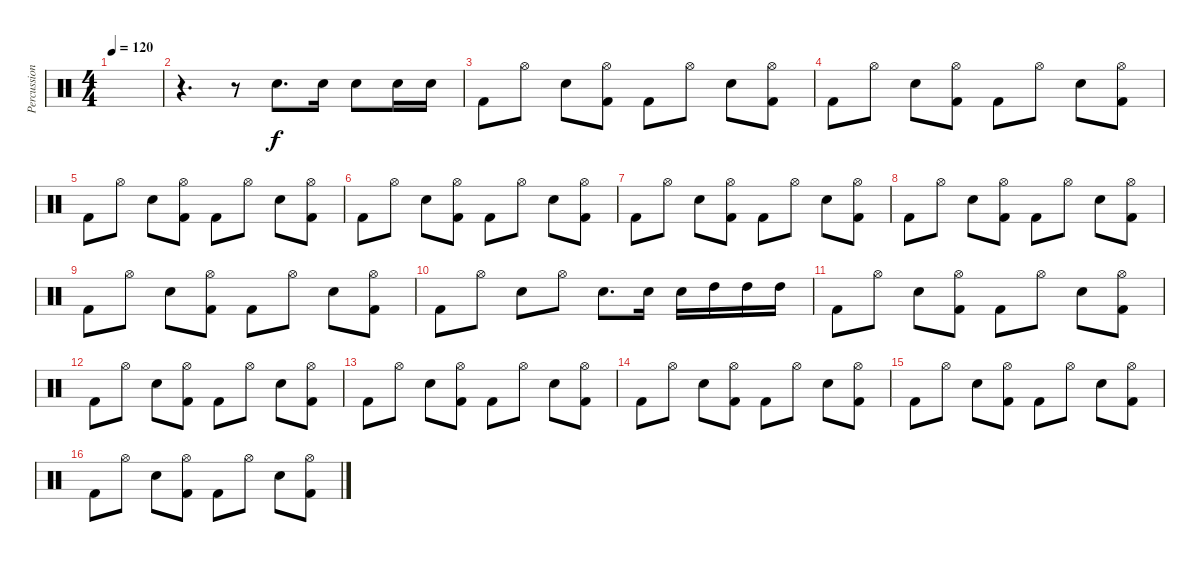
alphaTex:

\track ("Percussions" "Percussion") {instrument percussion}
\staff {score}
\articulation defaults
\ts (4 4)
\tempo 120
\clef neutral
\ks c
|
r.4{d} r.8 "Electric Snare (hit)".8{d} "Electric Snare (hit)".16 "Electric Snare (hit)".8 "Electric Snare (hit)".16 "Electric Snare (hit)".16 |
"Kick (hit) 2".8 "Hi-Hat (open)".8 "Electric Snare (hit)".8 ("Kick (hit) 2" "Hi-Hat (open)").8 "Kick (hit) 2".8 "Hi-Hat (open)".8 "Electric Snare (hit)".8 ("Hi-Hat (open)" "Kick (hit) 2").8 |
"Kick (hit) 2".8 "Hi-Hat (open)".8 "Electric Snare (hit)".8 ("Kick (hit) 2" "Hi-Hat (open)").8 "Kick (hit) 2".8 "Hi-Hat (open)".8 "Electric Snare (hit)".8 ("Hi-Hat (open)" "Kick (hit) 2").8 |
"Kick (hit) 2".8 "Hi-Hat (open)".8 "Electric Snare (hit)".8 ("Kick (hit) 2" "Hi-Hat (open)").8 "Kick (hit) 2".8 "Hi-Hat (open)".8 "Electric Snare (hit)".8 ("Hi-Hat (open)" "Kick (hit) 2").8 |
"Kick (hit) 2".8 "Hi-Hat (open)".8 "Electric Snare (hit)".8 ("Kick (hit) 2" "Hi-Hat (open)").8 "Kick (hit) 2".8 "Hi-Hat (open)".8 "Electric Snare (hit)".8 ("Hi-Hat (open)" "Kick (hit) 2").8 |
"Kick (hit) 2".8 "Hi-Hat (open)".8 "Electric Snare (hit)".8 ("Kick (hit) 2" "Hi-Hat (open)").8 "Kick (hit) 2".8 "Hi-Hat (open)".8 "Electric Snare (hit)".8 ("Hi-Hat (open)" "Kick (hit) 2").8 |
"Kick (hit) 2".8 "Hi-Hat (open)".8 "Electric Snare (hit)".8 ("Kick (hit) 2" "Hi-Hat (open)").8 "Kick (hit) 2".8 "Hi-Hat (open)".8 "Electric Snare (hit)".8 ("Hi-Hat (open)" "Kick (hit) 2").8 |
"Kick (hit) 2".8 "Hi-Hat (open)".8 "Electric Snare (hit)".8 ("Kick (hit) 2" "Hi-Hat (open)").8 "Kick (hit) 2".8 "Hi-Hat (open)".8 "Electric Snare (hit)".8 ("Hi-Hat (open)" "Kick (hit) 2").8 |
"Kick (hit) 2".8 "Hi-Hat (open)".8 "Electric Snare (hit)".8 "Hi-Hat (open)".8 "Electric Snare (hit)".8{d} "Electric Snare (hit)".16 "Electric Snare (hit)".16 "High Tom (hit)".16 "High Tom (hit)".16 "High Tom (hit)".16 |
"Kick (hit) 2".8 "Hi-Hat (open)".8 "Electric Snare (hit)".8 ("Kick (hit) 2" "Hi-Hat (open)").8 "Kick (hit) 2".8 "Hi-Hat (open)".8 "Electric Snare (hit)".8 ("Hi-Hat (open)" "Kick (hit) 2").8 |
"Kick (hit) 2".8 "Hi-Hat (open)".8 "Electric Snare (hit)".8 ("Kick (hit) 2" "Hi-Hat (open)").8 "Kick (hit) 2".8 "Hi-Hat (open)".8 "Electric Snare (hit)".8 ("Hi-Hat (open)" "Kick (hit) 2").8 |
"Kick (hit) 2".8 "Hi-Hat (open)".8 "Electric Snare (hit)".8 ("Kick (hit) 2" "Hi-Hat (open)").8 "Kick (hit) 2".8 "Hi-Hat (open)".8 "Electric Snare (hit)".8 ("Hi-Hat (open)" "Kick (hit) 2").8 |
"Kick (hit) 2".8 "Hi-Hat (open)".8 "Electric Snare (hit)".8 ("Kick (hit) 2" "Hi-Hat (open)").8 "Kick (hit) 2".8 "Hi-Hat (open)".8 "Electric Snare (hit)".8 ("Hi-Hat (open)" "Kick (hit) 2").8 |
"Kick (hit) 2".8 "Hi-Hat (open)".8 "Electric Snare (hit)".8 ("Kick (hit) 2" "Hi-Hat (open)").8 "Kick (hit) 2".8 "Hi-Hat (open)".8 "Electric Snare (hit)".8 ("Hi-Hat (open)" "Kick (hit) 2").8 |
"Kick (hit) 2".8 "Hi-Hat (open)".8 "Electric Snare (hit)".8 ("Kick (hit) 2" "Hi-Hat (open)").8 "Kick (hit) 2".8 "Hi-Hat (open)".8 "Electric Snare (hit)".8 ("Hi-Hat (open)" "Kick (hit) 2").8
